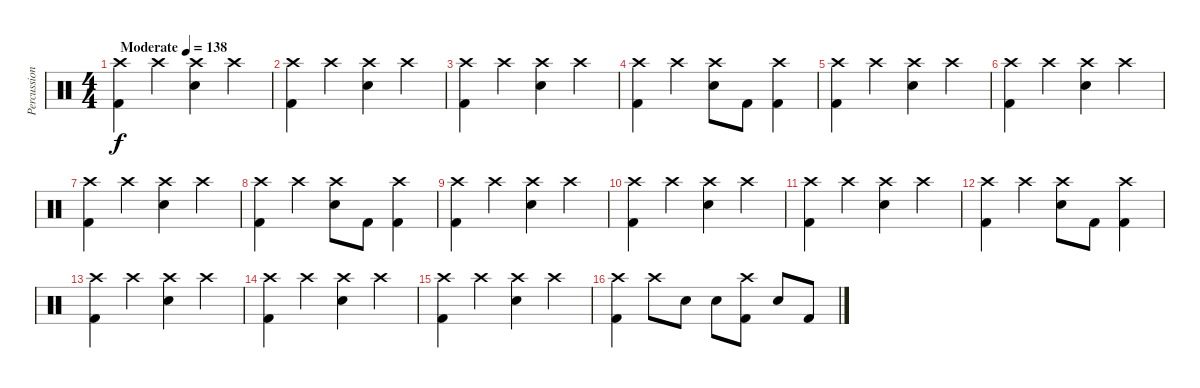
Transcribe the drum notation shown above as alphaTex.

\track ("Percussion" "Percussion") {instrument percussion}
\staff {score}
\articulation defaults
\ts (4 4)
\tempo (138 "Moderate")
\clef neutral
\ks c
("Crash high (hit)" "Kick (hit) 2").4{dy f volume 8} "Crash high (hit)".4 ("Crash high (hit)" "Electric Snare (hit)").4 "Crash high (hit)".4 |
("Crash high (hit)" "Kick (hit) 2").4 "Crash high (hit)".4 ("Crash high (hit)" "Electric Snare (hit)").4 "Crash high (hit)".4 |
("Crash high (hit)" "Kick (hit) 2").4 "Crash high (hit)".4 ("Crash high (hit)" "Electric Snare (hit)").4 "Crash high (hit)".4 |
("Crash high (hit)" "Kick (hit) 2").4 "Crash high (hit)".4 ("Crash high (hit)" "Electric Snare (hit)").8 "Kick (hit) 2".8 ("Crash high (hit)" "Kick (hit) 2").4 |
("Crash high (hit)" "Kick (hit) 2").4{volume 16} "Crash high (hit)".4 ("Crash high (hit)" "Electric Snare (hit)").4 "Crash high (hit)".4 |
("Crash high (hit)" "Kick (hit) 2").4 "Crash high (hit)".4 ("Crash high (hit)" "Electric Snare (hit)").4 "Crash high (hit)".4 |
("Crash high (hit)" "Kick (hit) 2").4 "Crash high (hit)".4 ("Crash high (hit)" "Electric Snare (hit)").4 "Crash high (hit)".4 |
("Crash high (hit)" "Kick (hit) 2").4 "Crash high (hit)".4 ("Crash high (hit)" "Electric Snare (hit)").8 "Kick (hit) 2".8 ("Crash high (hit)" "Kick (hit) 2").4 |
("Crash high (hit)" "Kick (hit) 2").4 "Crash high (hit)".4 ("Crash high (hit)" "Electric Snare (hit)").4 "Crash high (hit)".4 |
("Crash high (hit)" "Kick (hit) 2").4 "Crash high (hit)".4 ("Crash high (hit)" "Electric Snare (hit)").4 "Crash high (hit)".4 |
("Crash high (hit)" "Kick (hit) 2").4 "Crash high (hit)".4 ("Crash high (hit)" "Electric Snare (hit)").4 "Crash high (hit)".4 |
("Crash high (hit)" "Kick (hit) 2").4 "Crash high (hit)".4 ("Crash high (hit)" "Electric Snare (hit)").8 "Kick (hit) 2".8 ("Crash high (hit)" "Kick (hit) 2").4 |
("Crash high (hit)" "Kick (hit) 2").4 "Crash high (hit)".4 ("Crash high (hit)" "Electric Snare (hit)").4 "Crash high (hit)".4 |
("Crash high (hit)" "Kick (hit) 2").4 "Crash high (hit)".4 ("Crash high (hit)" "Electric Snare (hit)").4 "Crash high (hit)".4 |
("Crash high (hit)" "Kick (hit) 2").4 "Crash high (hit)".4 ("Crash high (hit)" "Electric Snare (hit)").4 "Crash high (hit)".4 |
("Crash high (hit)" "Kick (hit) 2").4 "Crash high (hit)".8 "Electric Snare (hit)".8 "Electric Snare (hit)".8 ("Crash high (hit)" "Kick (hit) 2").8 "Electric Snare (hit)".8 "Kick (hit) 2".8
